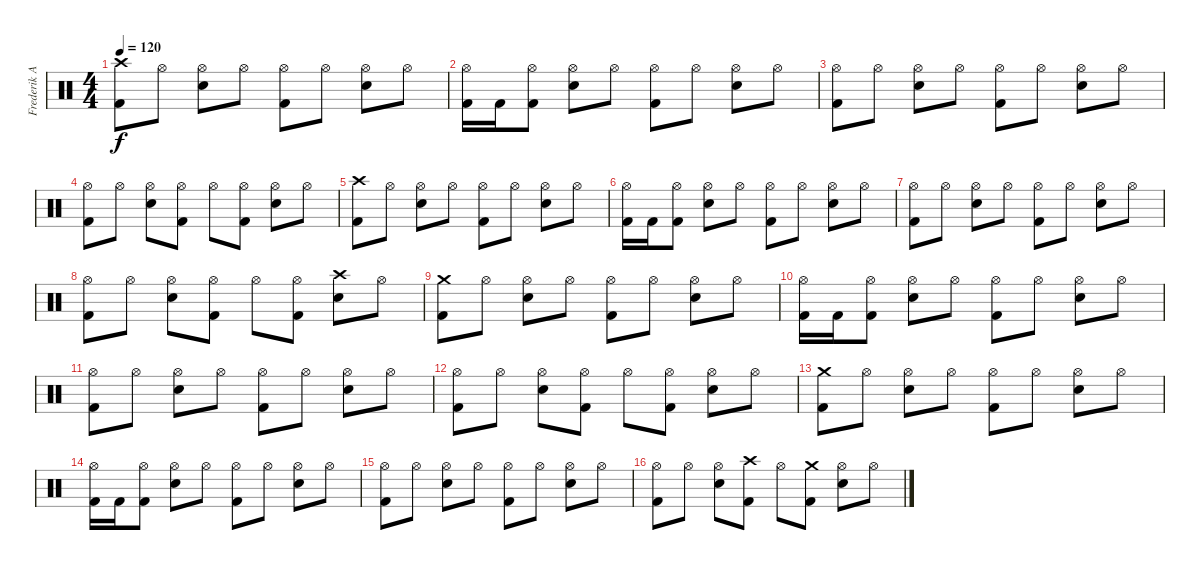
\track ("Frederik Anderson" "Frederik A") {instrument percussion}
\staff {score}
\articulation defaults
\ts (4 4)
\tempo 120
\clef neutral
\ks c
("Crash high (hit)" "Kick (hit) 2").8{dy f} "Hi-Hat (open)".8 ("Hi-Hat (open)" "Electric Snare (hit)").8 "Hi-Hat (open)".8 ("Hi-Hat (open)" "Kick (hit) 2").8 "Hi-Hat (open)".8 ("Hi-Hat (open)" "Electric Snare (hit)").8 "Hi-Hat (open)".8 |
("Hi-Hat (open)" "Kick (hit) 2").16 "Kick (hit) 2".16 ("Hi-Hat (open)" "Kick (hit) 2").8 ("Hi-Hat (open)" "Electric Snare (hit)").8 "Hi-Hat (open)".8 ("Hi-Hat (open)" "Kick (hit) 2").8 "Hi-Hat (open)".8 ("Hi-Hat (open)" "Electric Snare (hit)").8 "Hi-Hat (open)".8 |
("Hi-Hat (open)" "Kick (hit) 2").8 "Hi-Hat (open)".8 ("Hi-Hat (open)" "Electric Snare (hit)").8 "Hi-Hat (open)".8 ("Hi-Hat (open)" "Kick (hit) 2").8 "Hi-Hat (open)".8 ("Hi-Hat (open)" "Electric Snare (hit)").8 "Hi-Hat (open)".8 |
("Hi-Hat (open)" "Kick (hit) 2").8 "Hi-Hat (open)".8 ("Hi-Hat (open)" "Electric Snare (hit)").8 ("Hi-Hat (open)" "Kick (hit) 2").8 "Hi-Hat (open)".8 ("Hi-Hat (open)" "Kick (hit) 2").8 ("Hi-Hat (open)" "Electric Snare (hit)").8 "Hi-Hat (open)".8 |
("Crash high (hit)" "Kick (hit) 2").8 "Hi-Hat (open)".8 ("Hi-Hat (open)" "Electric Snare (hit)").8 "Hi-Hat (open)".8 ("Hi-Hat (open)" "Kick (hit) 2").8 "Hi-Hat (open)".8 ("Hi-Hat (open)" "Electric Snare (hit)").8 "Hi-Hat (open)".8 |
("Hi-Hat (open)" "Kick (hit) 2").16 "Kick (hit) 2".16 ("Hi-Hat (open)" "Kick (hit) 2").8 ("Hi-Hat (open)" "Electric Snare (hit)").8 "Hi-Hat (open)".8 ("Hi-Hat (open)" "Kick (hit) 2").8 "Hi-Hat (open)".8 ("Hi-Hat (open)" "Electric Snare (hit)").8 "Hi-Hat (open)".8 |
("Hi-Hat (open)" "Kick (hit) 2").8 "Hi-Hat (open)".8 ("Hi-Hat (open)" "Electric Snare (hit)").8 "Hi-Hat (open)".8 ("Hi-Hat (open)" "Kick (hit) 2").8 "Hi-Hat (open)".8 ("Hi-Hat (open)" "Electric Snare (hit)").8 "Hi-Hat (open)".8 |
("Hi-Hat (open)" "Kick (hit) 2").8 "Hi-Hat (open)".8 ("Hi-Hat (open)" "Electric Snare (hit)").8 ("Hi-Hat (open)" "Kick (hit) 2").8 "Hi-Hat (open)".8 ("Hi-Hat (open)" "Kick (hit) 2").8 ("Crash high (hit)" "Electric Snare (hit)").8 "Hi-Hat (open)".8 |
("Crash medium (hit)" "Kick (hit) 2").8 "Hi-Hat (open)".8 ("Hi-Hat (open)" "Electric Snare (hit)").8 "Hi-Hat (open)".8 ("Hi-Hat (open)" "Kick (hit) 2").8 "Hi-Hat (open)".8 ("Hi-Hat (open)" "Electric Snare (hit)").8 "Hi-Hat (open)".8 |
("Hi-Hat (open)" "Kick (hit) 2").16 "Kick (hit) 2".16 ("Hi-Hat (open)" "Kick (hit) 2").8 ("Hi-Hat (open)" "Electric Snare (hit)").8 "Hi-Hat (open)".8 ("Hi-Hat (open)" "Kick (hit) 2").8 "Hi-Hat (open)".8 ("Hi-Hat (open)" "Electric Snare (hit)").8 "Hi-Hat (open)".8 |
("Hi-Hat (open)" "Kick (hit) 2").8 "Hi-Hat (open)".8 ("Hi-Hat (open)" "Electric Snare (hit)").8 "Hi-Hat (open)".8 ("Hi-Hat (open)" "Kick (hit) 2").8 "Hi-Hat (open)".8 ("Hi-Hat (open)" "Electric Snare (hit)").8 "Hi-Hat (open)".8 |
("Hi-Hat (open)" "Kick (hit) 2").8 "Hi-Hat (open)".8 ("Hi-Hat (open)" "Electric Snare (hit)").8 ("Hi-Hat (open)" "Kick (hit) 2").8 "Hi-Hat (open)".8 ("Hi-Hat (open)" "Kick (hit) 2").8 ("Hi-Hat (open)" "Electric Snare (hit)").8 "Hi-Hat (open)".8 |
("Crash medium (hit)" "Kick (hit) 2").8 "Hi-Hat (open)".8 ("Hi-Hat (open)" "Electric Snare (hit)").8 "Hi-Hat (open)".8 ("Hi-Hat (open)" "Kick (hit) 2").8 "Hi-Hat (open)".8 ("Hi-Hat (open)" "Electric Snare (hit)").8 "Hi-Hat (open)".8 |
("Hi-Hat (open)" "Kick (hit) 2").16 "Kick (hit) 2".16 ("Hi-Hat (open)" "Kick (hit) 2").8 ("Hi-Hat (open)" "Electric Snare (hit)").8 "Hi-Hat (open)".8 ("Hi-Hat (open)" "Kick (hit) 2").8 "Hi-Hat (open)".8 ("Hi-Hat (open)" "Electric Snare (hit)").8 "Hi-Hat (open)".8 |
("Hi-Hat (open)" "Kick (hit) 2").8 "Hi-Hat (open)".8 ("Hi-Hat (open)" "Electric Snare (hit)").8 "Hi-Hat (open)".8 ("Hi-Hat (open)" "Kick (hit) 2").8 "Hi-Hat (open)".8 ("Hi-Hat (open)" "Electric Snare (hit)").8 "Hi-Hat (open)".8 |
("Hi-Hat (open)" "Kick (hit) 2").8 "Hi-Hat (open)".8 ("Hi-Hat (open)" "Electric Snare (hit)").8 ("Crash high (hit)" "Kick (hit) 2").8 "Hi-Hat (open)".8 ("Crash medium (hit)" "Kick (hit) 2").8 ("Hi-Hat (open)" "Electric Snare (hit)").8 "Hi-Hat (open)".8
